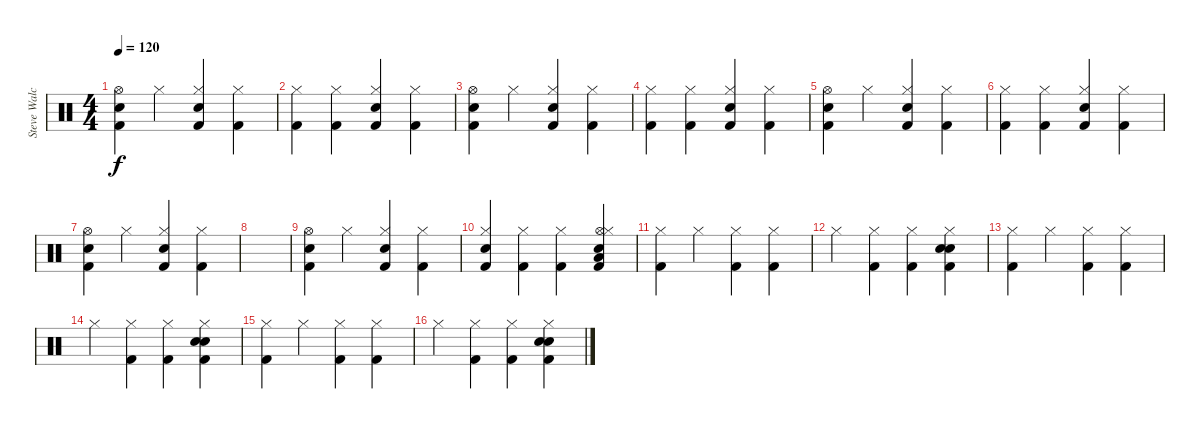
\track ("Steve Walchoz" "Steve Walc") {instrument percussion}
\staff {score}
\articulation defaults
\ts (4 4)
\tempo 120
\clef neutral
\ks c
("Kick (hit) 2" "Snare (hit) 2" "Hi-Hat (open)").4{dy f} "Hi-Hat (closed)".4 ("Kick (hit) 2" "Electric Snare (hit)" "Hi-Hat (closed)").4 ("Kick (hit) 2" "Hi-Hat (closed)").4 |
("Kick (hit) 2" "Hi-Hat (closed)").4 ("Kick (hit) 2" "Hi-Hat (closed)").4 ("Kick (hit) 2" "Electric Snare (hit)" "Hi-Hat (closed)").4 ("Kick (hit) 2" "Hi-Hat (closed)").4 |
("Kick (hit) 2" "Snare (hit) 2" "Hi-Hat (open)").4 "Hi-Hat (closed)".4 ("Kick (hit) 2" "Electric Snare (hit)" "Hi-Hat (closed)").4 ("Kick (hit) 2" "Hi-Hat (closed)").4 |
("Kick (hit) 2" "Hi-Hat (closed)").4 ("Kick (hit) 2" "Hi-Hat (closed)").4 ("Kick (hit) 2" "Electric Snare (hit)" "Hi-Hat (closed)").4 ("Kick (hit) 2" "Hi-Hat (closed)").4 |
("Kick (hit) 2" "Snare (hit) 2" "Hi-Hat (open)").4 "Hi-Hat (closed)".4 ("Kick (hit) 2" "Electric Snare (hit)" "Hi-Hat (closed)").4 ("Kick (hit) 2" "Hi-Hat (closed)").4 |
("Kick (hit) 2" "Hi-Hat (closed)").4 ("Kick (hit) 2" "Hi-Hat (closed)").4 ("Kick (hit) 2" "Electric Snare (hit)" "Hi-Hat (closed)").4 ("Kick (hit) 2" "Hi-Hat (closed)").4 |
("Kick (hit) 2" "Snare (hit) 2" "Hi-Hat (open)").4 "Hi-Hat (closed)".4 ("Kick (hit) 2" "Electric Snare (hit)" "Hi-Hat (closed)").4 ("Kick (hit) 2" "Hi-Hat (closed)").4 |
|
("Kick (hit) 2" "Snare (hit) 2" "Hi-Hat (open)").4 "Hi-Hat (closed)".4 ("Kick (hit) 2" "Electric Snare (hit)" "Hi-Hat (closed)").4 ("Kick (hit) 2" "Hi-Hat (closed)").4 |
("Kick (hit) 2" "Electric Snare (hit)" "Hi-Hat (closed)").4 ("Kick (hit) 2" "Hi-Hat (closed)").4 ("Kick (hit) 2" "Hi-Hat (closed)").4 ("Kick (hit) 2" "Hi-Hat (open)" "Hi-Hat (closed)" "Snare (hit) 2" "Low Floor Tom (hit)").4 |
("Kick (hit) 2" "Hi-Hat (closed)").4 "Hi-Hat (closed)".4 ("Kick (hit) 2" "Hi-Hat (closed)").4 ("Kick (hit) 2" "Hi-Hat (closed)").4 |
"Hi-Hat (closed)".4 ("Kick (hit) 2" "Hi-Hat (closed)").4 ("Kick (hit) 2" "Hi-Hat (closed)").4 ("Kick (hit) 2" "Snare (hit) 2" "Hi-Hat (closed)" "Snare (hit) 2").4 |
("Kick (hit) 2" "Hi-Hat (closed)").4 "Hi-Hat (closed)".4 ("Kick (hit) 2" "Hi-Hat (closed)").4 ("Kick (hit) 2" "Hi-Hat (closed)").4 |
"Hi-Hat (closed)".4 ("Kick (hit) 2" "Hi-Hat (closed)").4 ("Kick (hit) 2" "Hi-Hat (closed)").4 ("Kick (hit) 2" "Snare (hit) 2" "Hi-Hat (closed)" "Snare (hit) 2").4 |
("Kick (hit) 2" "Hi-Hat (closed)").4 "Hi-Hat (closed)".4 ("Kick (hit) 2" "Hi-Hat (closed)").4 ("Kick (hit) 2" "Hi-Hat (closed)").4 |
"Hi-Hat (closed)".4 ("Kick (hit) 2" "Hi-Hat (closed)").4 ("Kick (hit) 2" "Hi-Hat (closed)").4 ("Kick (hit) 2" "Snare (hit) 2" "Hi-Hat (closed)" "Snare (hit) 2").4
